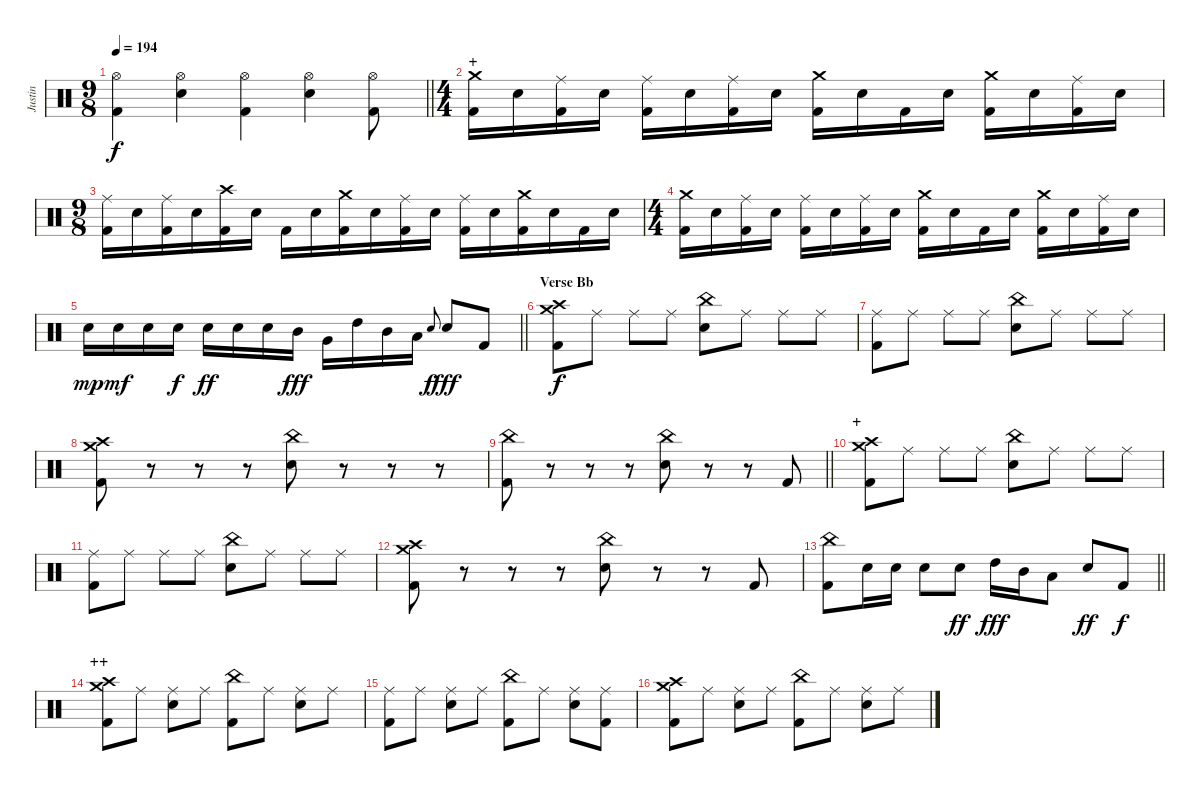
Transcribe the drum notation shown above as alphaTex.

\track ("Justin" "Justin") {instrument percussion}
\staff {score}
\articulation defaults
\ts (9 8)
\tempo 194
\clef neutral
\barLineRight lightlight
\ks c
("Hi-Hat (open)" "Kick (hit) 2").4{dy f} ("Hi-Hat (open)" "Electric Snare (hit)").4 ("Hi-Hat (open)" "Kick (hit) 2").4 ("Hi-Hat (open)" "Electric Snare (hit)").4 ("Hi-Hat (open)" "Kick (hit) 2").8 |
\ts (4 4)
\section ("" "+")
("Crash medium (hit)" "Kick (hit) 2").16 "Electric Snare (hit)".16 ("Ride (middle)" "Kick (hit) 2").16 "Electric Snare (hit)".16 ("Ride (middle)" "Kick (hit) 2").16 "Electric Snare (hit)".16 ("Ride (middle)" "Kick (hit) 2").16 "Electric Snare (hit)".16 ("Crash medium (hit)" "Kick (hit) 2").16 "Electric Snare (hit)".16 "Kick (hit) 2".16 "Electric Snare (hit)".16 ("Crash medium (hit)" "Kick (hit) 2").16 "Electric Snare (hit)".16 ("Ride (middle)" "Kick (hit) 2").16 "Electric Snare (hit)".16 |
\ts (9 8)
("Ride (middle)" "Kick (hit) 2").16 "Electric Snare (hit)".16 ("Ride (middle)" "Kick (hit) 2").16 "Electric Snare (hit)".16 ("Crash high (hit)" "Kick (hit) 2").16 "Electric Snare (hit)".16 "Kick (hit) 2".16 "Electric Snare (hit)".16 ("Crash medium (hit)" "Kick (hit) 2").16 "Electric Snare (hit)".16 ("Ride (middle)" "Kick (hit) 2").16 "Electric Snare (hit)".16 ("Ride (middle)" "Kick (hit) 2").16 "Electric Snare (hit)".16 ("Crash medium (hit)" "Kick (hit) 2").16 "Electric Snare (hit)".16 "Kick (hit) 2".16 "Electric Snare (hit)".16 |
\ts (4 4)
("Crash medium (hit)" "Kick (hit) 2").16 "Electric Snare (hit)".16 ("Ride (middle)" "Kick (hit) 2").16 "Electric Snare (hit)".16 ("Ride (middle)" "Kick (hit) 2").16 "Electric Snare (hit)".16 ("Ride (middle)" "Kick (hit) 2").16 "Electric Snare (hit)".16 ("Crash medium (hit)" "Kick (hit) 2").16 "Electric Snare (hit)".16 "Kick (hit) 2".16 "Electric Snare (hit)".16 ("Crash medium (hit)" "Kick (hit) 2").16 "Electric Snare (hit)".16 ("Ride (middle)" "Kick (hit) 2").16 "Electric Snare (hit)".16 |
\barLineRight lightlight "Electric Snare (hit)".16{dy mp} "Electric Snare (hit)".16{dy mf} "Electric Snare (hit)".16 "Electric Snare (hit)".16{dy f} "Electric Snare (hit)".16{dy ff} "Electric Snare (hit)".16 "Electric Snare (hit)".16 "Mid Tom (hit)".16{dy fff} "Very Low Tom (hit)".16 "High Tom (hit)".16 "Mid Tom (hit)".16 "Low Tom (hit)".16 "Electric Snare (hit)".8{gr onbeat dy f} "Electric Snare (hit)".8{dy fff} "Kick (hit) 2".8
|
\section ("" "Verse Bb")
("Crash medium (hit)" "Crash high (hit)" "Kick (hit) 2").8{dy f} "Ride (middle)".8 "Ride (middle)".8 "Ride (middle)".8 ("China (hit)" "Electric Snare (hit)").8 "Ride (middle)".8 "Ride (middle)".8 "Ride (middle)".8 |
("Ride (middle)" "Kick (hit) 2").8 "Ride (middle)".8 "Ride (middle)".8 "Ride (middle)".8 ("China (hit)" "Electric Snare (hit)").8 "Ride (middle)".8 "Ride (middle)".8 "Ride (middle)".8 |
("Crash medium (hit)" "Crash high (hit)" "Kick (hit) 2").8 r.8 r.8 r.8 ("China (hit)" "Electric Snare (hit)").8 r.8 r.8 r.8 |
\barLineRight lightlight
("China (hit)" "Kick (hit) 2").8 r.8 r.8 r.8 ("China (hit)" "Electric Snare (hit)").8 r.8 r.8 "Kick (hit) 2".8 |
\section ("" "+")
("Crash medium (hit)" "Crash high (hit)" "Kick (hit) 2").8 "Ride (middle)".8 "Ride (middle)".8 "Ride (middle)".8 ("China (hit)" "Electric Snare (hit)").8 "Ride (middle)".8 "Ride (middle)".8 "Ride (middle)".8 |
("Ride (middle)" "Kick (hit) 2").8 "Ride (middle)".8 "Ride (middle)".8 "Ride (middle)".8 ("China (hit)" "Electric Snare (hit)").8 "Ride (middle)".8 "Ride (middle)".8 "Ride (middle)".8 |
("Crash medium (hit)" "Crash high (hit)" "Kick (hit) 2").8 r.8 r.8 r.8 ("China (hit)" "Electric Snare (hit)").8 r.8 r.8 "Kick (hit) 2".8 |
\barLineRight lightlight
("China (hit)" "Kick (hit) 2").8 "Electric Snare (hit)".16 "Electric Snare (hit)".16 "Electric Snare (hit)".8 "Electric Snare (hit)".8{dy ff} "High Tom (hit)".16{dy fff} "Mid Tom (hit)".16 "Low Tom (hit)".8 "Electric Snare (hit)".8{dy ff} "Kick (hit) 2".8{dy f} |
\section ("" "++")
("Crash medium (hit)" "Crash high (hit)" "Kick (hit) 2").8 "Ride (middle)".8 ("Ride (middle)" "Electric Snare (hit)").8 "Ride (middle)".8 ("China (hit)" "Kick (hit) 2").8 "Ride (middle)".8 ("Ride (middle)" "Electric Snare (hit)").8 "Ride (middle)".8 |
("Ride (middle)" "Kick (hit) 2").8 "Ride (middle)".8 ("Ride (middle)" "Electric Snare (hit)").8 "Ride (middle)".8 ("China (hit)" "Kick (hit) 2").8 "Ride (middle)".8 ("Ride (middle)" "Electric Snare (hit)").8 ("Ride (middle)" "Kick (hit) 2").8 |
("Crash medium (hit)" "Crash high (hit)" "Kick (hit) 2").8 "Ride (middle)".8 ("Ride (middle)" "Electric Snare (hit)").8 "Ride (middle)".8 ("China (hit)" "Kick (hit) 2").8 "Ride (middle)".8 ("Ride (middle)" "Electric Snare (hit)").8 "Ride (middle)".8
